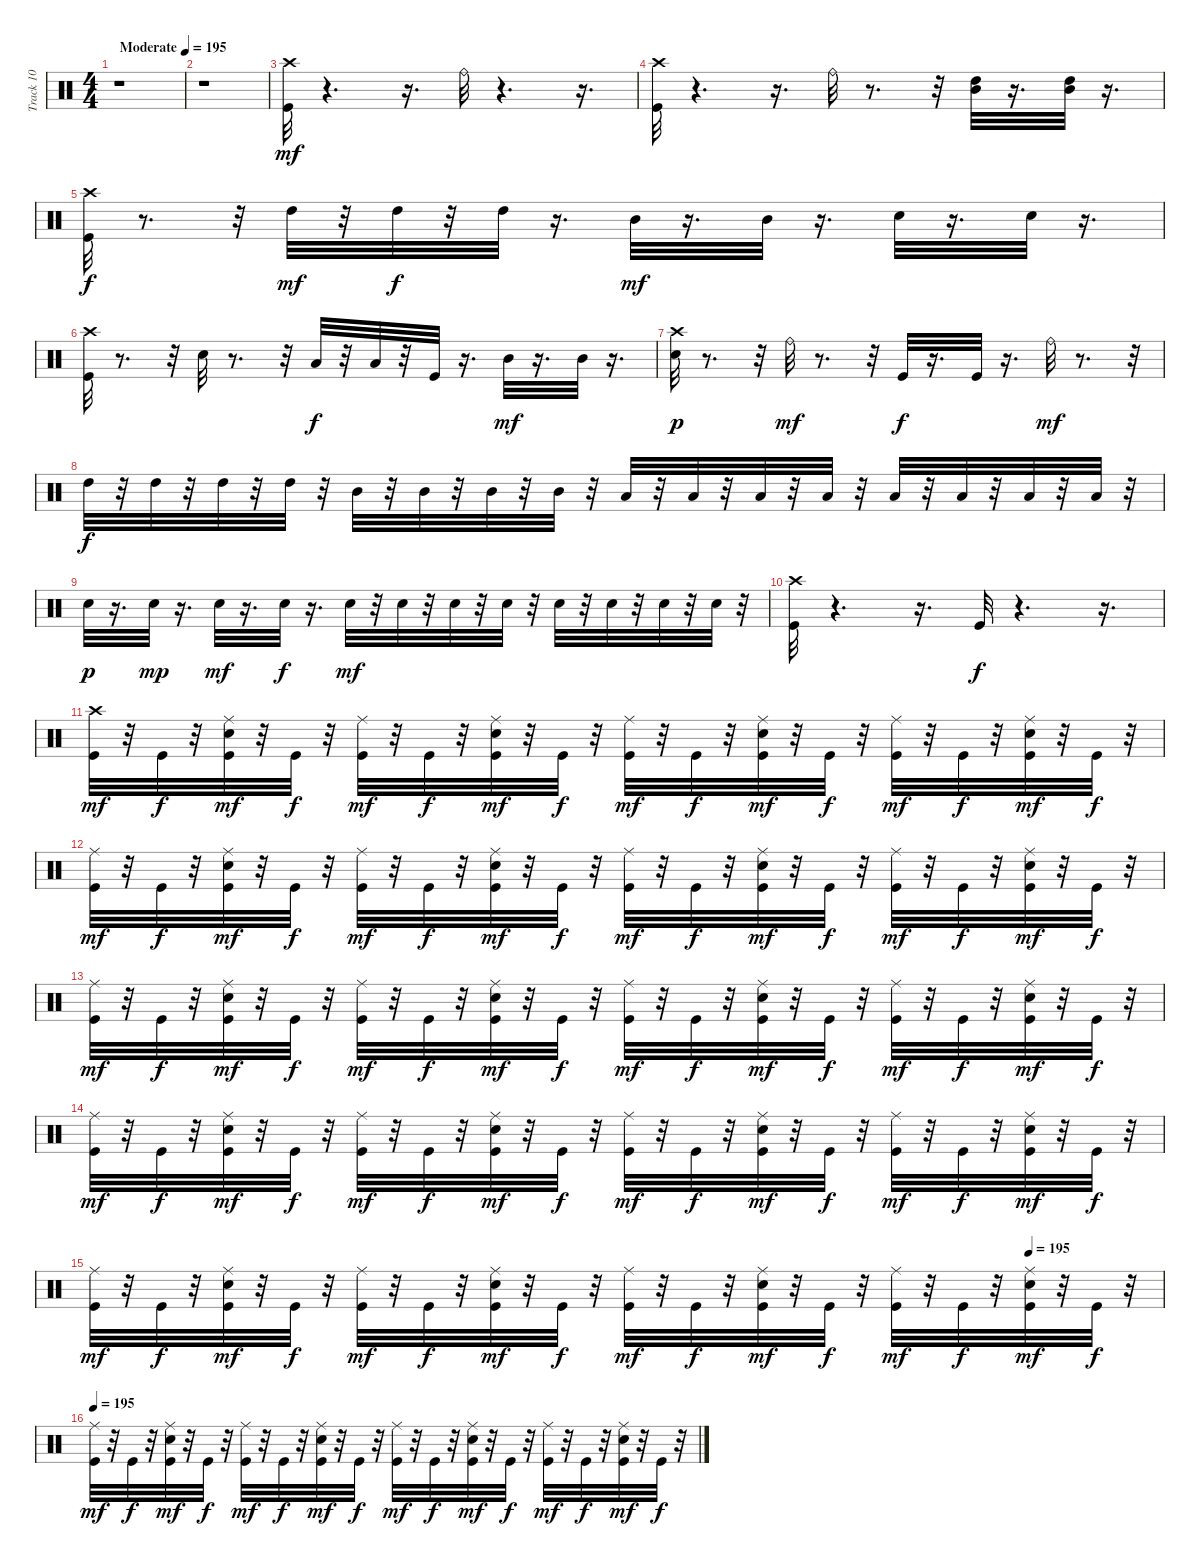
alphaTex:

\track ("Track 10" "Track 10") {instrument percussion}
\staff {score}
\articulation defaults
\ts (4 4)
\tempo (195 "Moderate")
\clef neutral
\ks c
r.1{dy mf} |
r.1 |
("Kick (hit)" "Crash high (hit)").32 r.4{d} r.16{d} "Ride (bell)".32 r.4{d} r.16{d} |
("Kick (hit)" "Crash high (hit)").32 r.4{d} r.16{d} "Ride (bell)".32 r.8{d} r.32 ("Mid Tom (hit)" "High Tom (hit)").32 r.16{d} ("Mid Tom (hit)" "High Tom (hit)").32 r.16{d} |
("Crash high (hit)" "Kick (hit)").32{dy f} r.8{d} r.32 "High Tom (hit)".32{dy mf} r.32 "High Tom (hit)".32{dy f} r.32 "High Tom (hit)".32 r.16{d} "Mid Tom (hit)".32{dy mf} r.16{d} "Mid Tom (hit)".32 r.16{d} "Electric Snare (hit)".32 r.16{d} "Electric Snare (hit)".32 r.16{d} |
("Crash high (hit)" "Kick (hit)").32 r.8{d} r.32 "Electric Snare (hit)".32 r.8{d} r.32 "Low Tom (hit)".32{dy f} r.32 "Low Tom (hit)".32 r.32 "Kick (hit)".32 r.16{d} "Mid Tom (hit)".32{dy mf} r.16{d} "Mid Tom (hit)".32 r.16{d} |
("Crash high (hit)" "Electric Snare (hit)").32{dy p} r.8{d} r.32 "Ride (bell)".32{dy mf} r.8{d} r.32 "Kick (hit)".32{dy f} r.16{d} "Kick (hit)".32 r.16{d} "Ride (bell)".32{dy mf} r.8{d} r.32 |
"High Tom (hit)".32{dy f} r.32 "High Tom (hit)".32 r.32 "High Tom (hit)".32 r.32 "High Tom (hit)".32 r.32 "Mid Tom (hit)".32 r.32 "Mid Tom (hit)".32 r.32 "Mid Tom (hit)".32 r.32 "Mid Tom (hit)".32 r.32 "Low Tom (hit)".32 r.32 "Low Tom (hit)".32 r.32 "Low Tom (hit)".32 r.32 "Low Tom (hit)".32 r.32 "Low Floor Tom (hit)".32 r.32 "Low Floor Tom (hit)".32 r.32 "Low Floor Tom (hit)".32 r.32 "Low Floor Tom (hit)".32 r.32 |
"Electric Snare (hit)".32{dy p} r.16{d} "Electric Snare (hit)".32{dy mp} r.16{d} "Electric Snare (hit)".32{dy mf} r.16{d} "Electric Snare (hit)".32{dy f} r.16{d} "Electric Snare (hit)".32{dy mf} r.32 "Electric Snare (hit)".32 r.32 "Electric Snare (hit)".32 r.32 "Electric Snare (hit)".32 r.32 "Electric Snare (hit)".32 r.32 "Electric Snare (hit)".32 r.32 "Electric Snare (hit)".32 r.32 "Electric Snare (hit)".32 r.32 |
("Crash high (hit)" "Kick (hit)").32 r.4{d} r.16{d} "Kick (hit)".32{dy f} r.4{d} r.16{d} |
("Crash high (hit)" "Kick (hit)").32{dy mf} r.32 "Kick (hit)".32{dy f} r.32 ("Electric Snare (hit)" "Ride (middle)" "Kick (hit)").32{dy mf} r.32 "Kick (hit)".32{dy f} r.32 ("Ride (middle)" "Kick (hit)").32{dy mf} r.32 "Kick (hit)".32{dy f} r.32 ("Ride (middle)" "Kick (hit)" "Electric Snare (hit)").32{dy mf} r.32 "Kick (hit)".32{dy f} r.32 ("Ride (middle)" "Kick (hit)").32{dy mf} r.32 "Kick (hit)".32{dy f} r.32 ("Ride (middle)" "Kick (hit)" "Electric Snare (hit)").32{dy mf} r.32 "Kick (hit)".32{dy f} r.32 ("Ride (middle)" "Kick (hit)").32{dy mf} r.32 "Kick (hit)".32{dy f} r.32 ("Electric Snare (hit)" "Ride (middle)" "Kick (hit)").32{dy mf} r.32 "Kick (hit)".32{dy f} r.32 |
("Ride (middle)" "Kick (hit)").32{dy mf} r.32 "Kick (hit)".32{dy f} r.32 ("Electric Snare (hit)" "Ride (middle)" "Kick (hit)").32{dy mf} r.32 "Kick (hit)".32{dy f} r.32 ("Ride (middle)" "Kick (hit)").32{dy mf} r.32 "Kick (hit)".32{dy f} r.32 ("Ride (middle)" "Kick (hit)" "Electric Snare (hit)").32{dy mf} r.32 "Kick (hit)".32{dy f} r.32 ("Ride (middle)" "Kick (hit)").32{dy mf} r.32 "Kick (hit)".32{dy f} r.32 ("Ride (middle)" "Kick (hit)" "Electric Snare (hit)").32{dy mf} r.32 "Kick (hit)".32{dy f} r.32 ("Ride (middle)" "Kick (hit)").32{dy mf} r.32 "Kick (hit)".32{dy f} r.32 ("Electric Snare (hit)" "Ride (middle)" "Kick (hit)").32{dy mf} r.32 "Kick (hit)".32{dy f} r.32 |
("Ride (middle)" "Kick (hit)").32{dy mf} r.32 "Kick (hit)".32{dy f} r.32 ("Electric Snare (hit)" "Ride (middle)" "Kick (hit)").32{dy mf} r.32 "Kick (hit)".32{dy f} r.32 ("Ride (middle)" "Kick (hit)").32{dy mf} r.32 "Kick (hit)".32{dy f} r.32 ("Ride (middle)" "Kick (hit)" "Electric Snare (hit)").32{dy mf} r.32 "Kick (hit)".32{dy f} r.32 ("Ride (middle)" "Kick (hit)").32{dy mf} r.32 "Kick (hit)".32{dy f} r.32 ("Ride (middle)" "Kick (hit)" "Electric Snare (hit)").32{dy mf} r.32 "Kick (hit)".32{dy f} r.32 ("Ride (middle)" "Kick (hit)").32{dy mf} r.32 "Kick (hit)".32{dy f} r.32 ("Electric Snare (hit)" "Ride (middle)" "Kick (hit)").32{dy mf} r.32 "Kick (hit)".32{dy f} r.32 |
("Ride (middle)" "Kick (hit)").32{dy mf} r.32 "Kick (hit)".32{dy f} r.32 ("Electric Snare (hit)" "Ride (middle)" "Kick (hit)").32{dy mf} r.32 "Kick (hit)".32{dy f} r.32 ("Ride (middle)" "Kick (hit)").32{dy mf} r.32 "Kick (hit)".32{dy f} r.32 ("Ride (middle)" "Kick (hit)" "Electric Snare (hit)").32{dy mf} r.32 "Kick (hit)".32{dy f} r.32 ("Ride (middle)" "Kick (hit)").32{dy mf} r.32 "Kick (hit)".32{dy f} r.32 ("Ride (middle)" "Kick (hit)" "Electric Snare (hit)").32{dy mf} r.32 "Kick (hit)".32{dy f} r.32 ("Ride (middle)" "Kick (hit)").32{dy mf} r.32 "Kick (hit)".32{dy f} r.32 ("Electric Snare (hit)" "Ride (middle)" "Kick (hit)").32{dy mf} r.32 "Kick (hit)".32{dy f} r.32 |
\tempo (195 0.875)
("Ride (middle)" "Kick (hit)").32{dy mf} r.32 "Kick (hit)".32{dy f} r.32 ("Electric Snare (hit)" "Ride (middle)" "Kick (hit)").32{dy mf} r.32 "Kick (hit)".32{dy f} r.32 ("Ride (middle)" "Kick (hit)").32{dy mf} r.32 "Kick (hit)".32{dy f} r.32 ("Ride (middle)" "Kick (hit)" "Electric Snare (hit)").32{dy mf} r.32 "Kick (hit)".32{dy f} r.32 ("Ride (middle)" "Kick (hit)").32{dy mf} r.32 "Kick (hit)".32{dy f} r.32 ("Ride (middle)" "Kick (hit)" "Electric Snare (hit)").32{dy mf} r.32 "Kick (hit)".32{dy f} r.32 ("Ride (middle)" "Kick (hit)").32{dy mf} r.32 "Kick (hit)".32{dy f} r.32 ("Electric Snare (hit)" "Ride (middle)" "Kick (hit)").32{dy mf} r.32 "Kick (hit)".32{dy f} r.32 |
\tempo 195
("Ride (middle)" "Kick (hit)").32{dy mf} r.32 "Kick (hit)".32{dy f} r.32 ("Electric Snare (hit)" "Ride (middle)" "Kick (hit)").32{dy mf} r.32 "Kick (hit)".32{dy f} r.32 ("Ride (middle)" "Kick (hit)").32{dy mf} r.32 "Kick (hit)".32{dy f} r.32 ("Ride (middle)" "Kick (hit)" "Electric Snare (hit)").32{dy mf} r.32 "Kick (hit)".32{dy f} r.32 ("Ride (middle)" "Kick (hit)").32{dy mf} r.32 "Kick (hit)".32{dy f} r.32 ("Ride (middle)" "Kick (hit)" "Electric Snare (hit)").32{dy mf} r.32 "Kick (hit)".32{dy f} r.32 ("Ride (middle)" "Kick (hit)").32{dy mf} r.32 "Kick (hit)".32{dy f} r.32 ("Electric Snare (hit)" "Ride (middle)" "Kick (hit)").32{dy mf} r.32 "Kick (hit)".32{dy f} r.32
